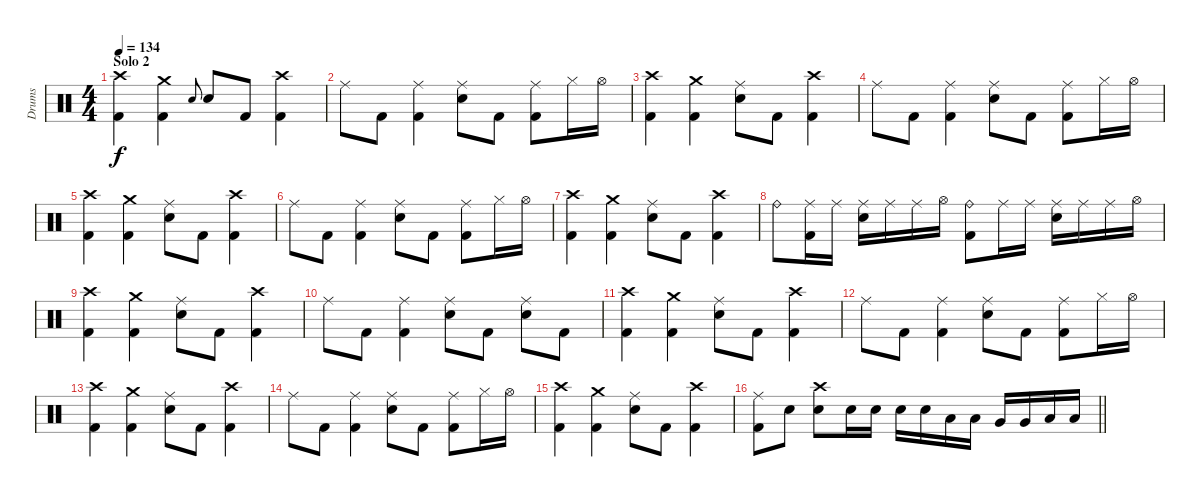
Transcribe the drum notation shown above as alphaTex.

\track ("Drums" "Drums") {instrument percussion}
\staff {score}
\articulation defaults
\ts (4 4)
\section ("" "Solo 2")
\tempo 134
\clef neutral
\ks c
("Crash high (hit)" "Kick (hit) 2").4{dy f} ("Crash medium (hit)" "Kick (hit) 2").4 "Snare (hit) 2".8{gr onbeat} "Snare (hit) 2".8 "Kick (hit) 2".8 ("Crash high (hit)" "Kick (hit) 2").4 |
"Ride (middle)".8 "Kick (hit) 2".8 ("Ride (middle)" "Kick (hit) 2").4 ("Ride (middle)" "Snare (hit) 2").8 "Kick (hit) 2".8 ("Ride (middle)" "Kick (hit) 2").8 "Hi-Hat (closed)".16 "Hi-Hat (open)".16 |
("Crash high (hit)" "Kick (hit) 2").4 ("Crash medium (hit)" "Kick (hit) 2").4 ("Ride (middle)" "Snare (hit) 2").8 "Kick (hit) 2".8 ("Crash high (hit)" "Kick (hit) 2").4 |
"Ride (middle)".8 "Kick (hit) 2".8 ("Ride (middle)" "Kick (hit) 2").4 ("Ride (middle)" "Snare (hit) 2").8 "Kick (hit) 2".8 ("Ride (middle)" "Kick (hit) 2").8 "Hi-Hat (closed)".16 "Hi-Hat (open)".16 |
("Crash high (hit)" "Kick (hit) 2").4 ("Crash medium (hit)" "Kick (hit) 2").4 ("Ride (middle)" "Snare (hit) 2").8 "Kick (hit) 2".8 ("Crash high (hit)" "Kick (hit) 2").4 |
"Ride (middle)".8 "Kick (hit) 2".8 ("Ride (middle)" "Kick (hit) 2").4 ("Ride (middle)" "Snare (hit) 2").8 "Kick (hit) 2".8 ("Ride (middle)" "Kick (hit) 2").8 "Hi-Hat (closed)".16 "Hi-Hat (open)".16 |
("Crash high (hit)" "Kick (hit) 2").4 ("Crash medium (hit)" "Kick (hit) 2").4 ("Ride (middle)" "Snare (hit) 2").8 "Kick (hit) 2".8 ("Crash high (hit)" "Kick (hit) 2").4 |
"Ride (bell)".8 ("Ride (middle)" "Kick (hit) 2").16 "Ride (middle)".16 ("Ride (middle)" "Snare (hit) 2").16 "Ride (middle)".16 "Ride (middle)".16 "Hi-Hat (open)".16 ("Ride (bell)" "Kick (hit) 2").8 "Ride (middle)".16 "Ride (middle)".16 ("Ride (middle)" "Snare (hit) 2").16 "Ride (middle)".16 "Ride (middle)".16 "Hi-Hat (open)".16 |
("Crash high (hit)" "Kick (hit) 2").4 ("Crash medium (hit)" "Kick (hit) 2").4 ("Ride (middle)" "Snare (hit) 2").8 "Kick (hit) 2".8 ("Crash high (hit)" "Kick (hit) 2").4 |
"Ride (middle)".8 "Kick (hit) 2".8 ("Ride (middle)" "Kick (hit) 2").4 ("Ride (middle)" "Snare (hit) 2").8 "Kick (hit) 2".8 ("Ride (middle)" "Snare (hit) 2").8 "Kick (hit) 2".8 |
("Crash high (hit)" "Kick (hit) 2").4 ("Crash medium (hit)" "Kick (hit) 2").4 ("Ride (middle)" "Snare (hit) 2").8 "Kick (hit) 2".8 ("Crash high (hit)" "Kick (hit) 2").4 |
"Ride (middle)".8 "Kick (hit) 2".8 ("Ride (middle)" "Kick (hit) 2").4 ("Ride (middle)" "Snare (hit) 2").8 "Kick (hit) 2".8 ("Ride (middle)" "Kick (hit) 2").8 "Hi-Hat (closed)".16 "Hi-Hat (open)".16 |
("Crash high (hit)" "Kick (hit) 2").4 ("Crash medium (hit)" "Kick (hit) 2").4 ("Ride (middle)" "Snare (hit) 2").8 "Kick (hit) 2".8 ("Crash high (hit)" "Kick (hit) 2").4 |
"Ride (middle)".8 "Kick (hit) 2".8 ("Ride (middle)" "Kick (hit) 2").4 ("Ride (middle)" "Snare (hit) 2").8 "Kick (hit) 2".8 ("Ride (middle)" "Kick (hit) 2").8 "Hi-Hat (closed)".16 "Hi-Hat (open)".16 |
("Crash high (hit)" "Kick (hit) 2").4 ("Crash medium (hit)" "Kick (hit) 2").4 ("Ride (middle)" "Snare (hit) 2").8 "Kick (hit) 2".8 ("Crash high (hit)" "Kick (hit) 2").4 |
\barLineRight lightlight
("Ride (middle)" "Kick (hit) 2").8 "Snare (hit) 2".8 ("Crash high (hit)" "Snare (hit) 2").8 "Snare (hit) 2".16 "Snare (hit) 2".16 "Snare (hit) 2".16 "Snare (hit) 2".16 "Low Tom (hit)".16 "Low Tom (hit)".16 "Very Low Tom (hit)".16 "Very Low Tom (hit)".16 "Low Floor Tom (hit)".16 "Low Floor Tom (hit)".16
